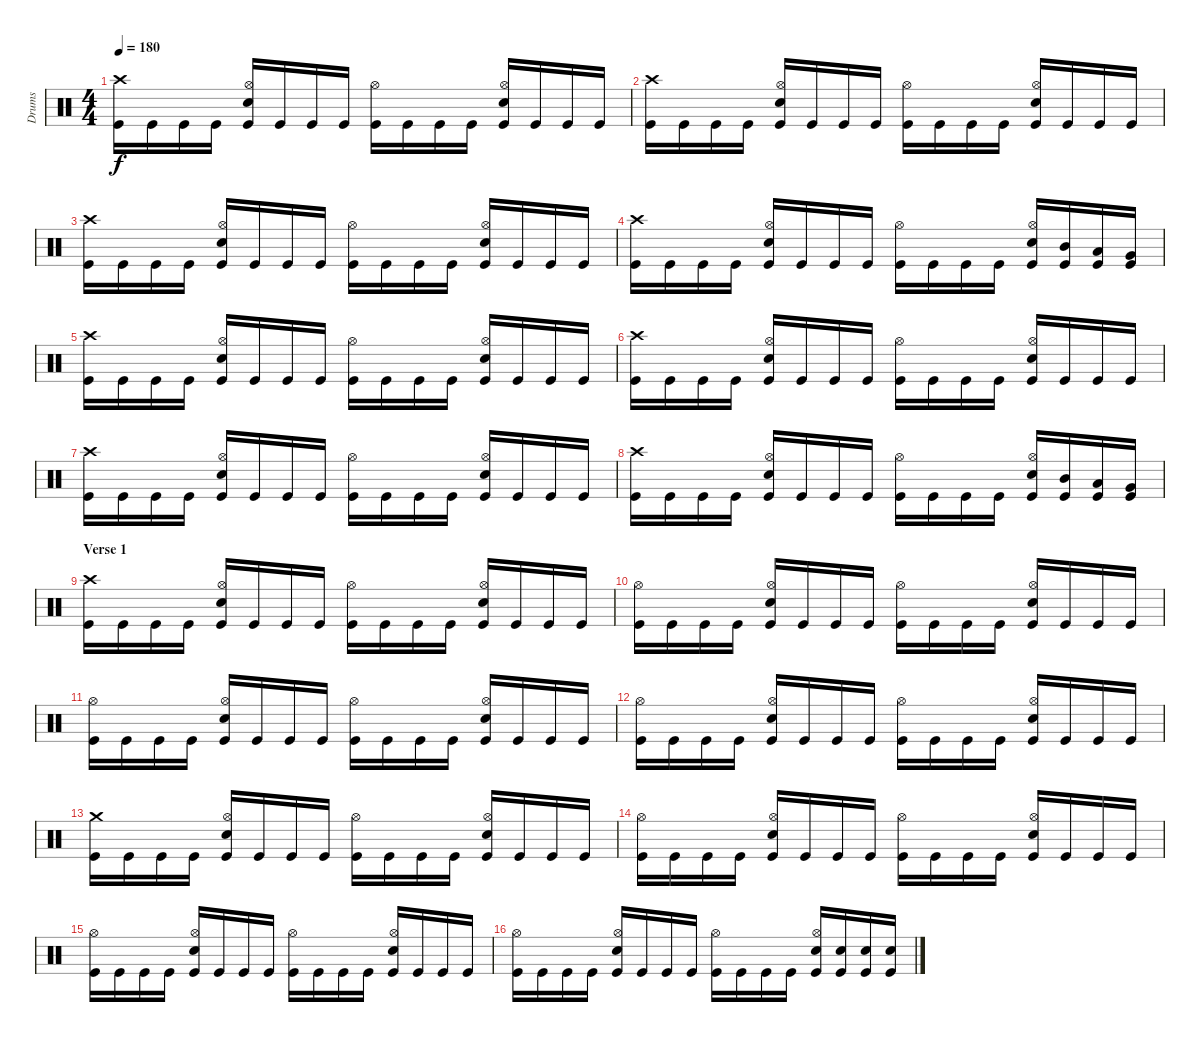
\track ("Drums" "Drums") {instrument percussion}
\staff {score}
\articulation defaults
\ts (4 4)
\tempo 180
\clef neutral
\ks c
("Crash high (hit)" "Kick (hit)").16{dy f} "Kick (hit)".16 "Kick (hit)".16 "Kick (hit)".16 ("Hi-Hat (open)" "Snare (hit) 2" "Kick (hit)").16 "Kick (hit)".16 "Kick (hit)".16 "Kick (hit)".16 ("Hi-Hat (open)" "Kick (hit)").16 "Kick (hit)".16 "Kick (hit)".16 "Kick (hit)".16 ("Hi-Hat (open)" "Snare (hit) 2" "Kick (hit)").16 "Kick (hit)".16 "Kick (hit)".16 "Kick (hit)".16 |
("Crash high (hit)" "Kick (hit)").16 "Kick (hit)".16 "Kick (hit)".16 "Kick (hit)".16 ("Hi-Hat (open)" "Snare (hit) 2" "Kick (hit)").16 "Kick (hit)".16 "Kick (hit)".16 "Kick (hit)".16 ("Hi-Hat (open)" "Kick (hit)").16 "Kick (hit)".16 "Kick (hit)".16 "Kick (hit)".16 ("Hi-Hat (open)" "Snare (hit) 2" "Kick (hit)").16 "Kick (hit)".16 "Kick (hit)".16 "Kick (hit)".16 |
("Crash high (hit)" "Kick (hit)").16 "Kick (hit)".16 "Kick (hit)".16 "Kick (hit)".16 ("Hi-Hat (open)" "Snare (hit) 2" "Kick (hit)").16 "Kick (hit)".16 "Kick (hit)".16 "Kick (hit)".16 ("Hi-Hat (open)" "Kick (hit)").16 "Kick (hit)".16 "Kick (hit)".16 "Kick (hit)".16 ("Hi-Hat (open)" "Snare (hit) 2" "Kick (hit)").16 "Kick (hit)".16 "Kick (hit)".16 "Kick (hit)".16 |
("Crash high (hit)" "Kick (hit)").16 "Kick (hit)".16 "Kick (hit)".16 "Kick (hit)".16 ("Hi-Hat (open)" "Snare (hit) 2" "Kick (hit)").16 "Kick (hit)".16 "Kick (hit)".16 "Kick (hit)".16 ("Hi-Hat (open)" "Kick (hit)").16 "Kick (hit)".16 "Kick (hit)".16 "Kick (hit)".16 ("Hi-Hat (open)" "Snare (hit) 2" "Kick (hit)").16 ("Mid Tom (hit)" "Kick (hit)").16 ("Low Tom (hit)" "Kick (hit)").16 ("Very Low Tom (hit)" "Kick (hit)").16 |
("Crash high (hit)" "Kick (hit)").16 "Kick (hit)".16 "Kick (hit)".16 "Kick (hit)".16 ("Hi-Hat (open)" "Snare (hit) 2" "Kick (hit)").16 "Kick (hit)".16 "Kick (hit)".16 "Kick (hit)".16 ("Hi-Hat (open)" "Kick (hit)").16 "Kick (hit)".16 "Kick (hit)".16 "Kick (hit)".16 ("Hi-Hat (open)" "Snare (hit) 2" "Kick (hit)").16 "Kick (hit)".16 "Kick (hit)".16 "Kick (hit)".16 |
("Crash high (hit)" "Kick (hit)").16 "Kick (hit)".16 "Kick (hit)".16 "Kick (hit)".16 ("Hi-Hat (open)" "Snare (hit) 2" "Kick (hit)").16 "Kick (hit)".16 "Kick (hit)".16 "Kick (hit)".16 ("Hi-Hat (open)" "Kick (hit)").16 "Kick (hit)".16 "Kick (hit)".16 "Kick (hit)".16 ("Hi-Hat (open)" "Snare (hit) 2" "Kick (hit)").16 "Kick (hit)".16 "Kick (hit)".16 "Kick (hit)".16 |
("Crash high (hit)" "Kick (hit)").16 "Kick (hit)".16 "Kick (hit)".16 "Kick (hit)".16 ("Hi-Hat (open)" "Snare (hit) 2" "Kick (hit)").16 "Kick (hit)".16 "Kick (hit)".16 "Kick (hit)".16 ("Hi-Hat (open)" "Kick (hit)").16 "Kick (hit)".16 "Kick (hit)".16 "Kick (hit)".16 ("Hi-Hat (open)" "Snare (hit) 2" "Kick (hit)").16 "Kick (hit)".16 "Kick (hit)".16 "Kick (hit)".16 |
("Crash high (hit)" "Kick (hit)").16 "Kick (hit)".16 "Kick (hit)".16 "Kick (hit)".16 ("Hi-Hat (open)" "Snare (hit) 2" "Kick (hit)").16 "Kick (hit)".16 "Kick (hit)".16 "Kick (hit)".16 ("Hi-Hat (open)" "Kick (hit)").16 "Kick (hit)".16 "Kick (hit)".16 "Kick (hit)".16 ("Hi-Hat (open)" "Snare (hit) 2" "Kick (hit)").16 ("Mid Tom (hit)" "Kick (hit)").16 ("Low Tom (hit)" "Kick (hit)").16 ("Very Low Tom (hit)" "Kick (hit)").16 |
\section ("" "Verse 1")
("Crash high (hit)" "Kick (hit)").16 "Kick (hit)".16 "Kick (hit)".16 "Kick (hit)".16 ("Hi-Hat (open)" "Snare (hit) 2" "Kick (hit)").16 "Kick (hit)".16 "Kick (hit)".16 "Kick (hit)".16 ("Hi-Hat (open)" "Kick (hit)").16 "Kick (hit)".16 "Kick (hit)".16 "Kick (hit)".16 ("Hi-Hat (open)" "Snare (hit) 2" "Kick (hit)").16 "Kick (hit)".16 "Kick (hit)".16 "Kick (hit)".16 |
("Hi-Hat (open)" "Kick (hit)").16 "Kick (hit)".16 "Kick (hit)".16 "Kick (hit)".16 ("Hi-Hat (open)" "Snare (hit) 2" "Kick (hit)").16 "Kick (hit)".16 "Kick (hit)".16 "Kick (hit)".16 ("Hi-Hat (open)" "Kick (hit)").16 "Kick (hit)".16 "Kick (hit)".16 "Kick (hit)".16 ("Hi-Hat (open)" "Snare (hit) 2" "Kick (hit)").16 "Kick (hit)".16 "Kick (hit)".16 "Kick (hit)".16 |
("Hi-Hat (open)" "Kick (hit)").16 "Kick (hit)".16 "Kick (hit)".16 "Kick (hit)".16 ("Hi-Hat (open)" "Snare (hit) 2" "Kick (hit)").16 "Kick (hit)".16 "Kick (hit)".16 "Kick (hit)".16 ("Hi-Hat (open)" "Kick (hit)").16 "Kick (hit)".16 "Kick (hit)".16 "Kick (hit)".16 ("Hi-Hat (open)" "Snare (hit) 2" "Kick (hit)").16 "Kick (hit)".16 "Kick (hit)".16 "Kick (hit)".16 |
("Hi-Hat (open)" "Kick (hit)").16 "Kick (hit)".16 "Kick (hit)".16 "Kick (hit)".16 ("Hi-Hat (open)" "Snare (hit) 2" "Kick (hit)").16 "Kick (hit)".16 "Kick (hit)".16 "Kick (hit)".16 ("Hi-Hat (open)" "Kick (hit)").16 "Kick (hit)".16 "Kick (hit)".16 "Kick (hit)".16 ("Hi-Hat (open)" "Snare (hit) 2" "Kick (hit)").16 "Kick (hit)".16 "Kick (hit)".16 "Kick (hit)".16 |
("Crash medium (hit)" "Kick (hit)").16 "Kick (hit)".16 "Kick (hit)".16 "Kick (hit)".16 ("Hi-Hat (open)" "Snare (hit) 2" "Kick (hit)").16 "Kick (hit)".16 "Kick (hit)".16 "Kick (hit)".16 ("Hi-Hat (open)" "Kick (hit)").16 "Kick (hit)".16 "Kick (hit)".16 "Kick (hit)".16 ("Hi-Hat (open)" "Snare (hit) 2" "Kick (hit)").16 "Kick (hit)".16 "Kick (hit)".16 "Kick (hit)".16 |
("Hi-Hat (open)" "Kick (hit)").16 "Kick (hit)".16 "Kick (hit)".16 "Kick (hit)".16 ("Hi-Hat (open)" "Snare (hit) 2" "Kick (hit)").16 "Kick (hit)".16 "Kick (hit)".16 "Kick (hit)".16 ("Hi-Hat (open)" "Kick (hit)").16 "Kick (hit)".16 "Kick (hit)".16 "Kick (hit)".16 ("Hi-Hat (open)" "Snare (hit) 2" "Kick (hit)").16 "Kick (hit)".16 "Kick (hit)".16 "Kick (hit)".16 |
("Hi-Hat (open)" "Kick (hit)").16 "Kick (hit)".16 "Kick (hit)".16 "Kick (hit)".16 ("Hi-Hat (open)" "Snare (hit) 2" "Kick (hit)").16 "Kick (hit)".16 "Kick (hit)".16 "Kick (hit)".16 ("Hi-Hat (open)" "Kick (hit)").16 "Kick (hit)".16 "Kick (hit)".16 "Kick (hit)".16 ("Hi-Hat (open)" "Snare (hit) 2" "Kick (hit)").16 "Kick (hit)".16 "Kick (hit)".16 "Kick (hit)".16 |
("Hi-Hat (open)" "Kick (hit)").16 "Kick (hit)".16 "Kick (hit)".16 "Kick (hit)".16 ("Hi-Hat (open)" "Snare (hit) 2" "Kick (hit)").16 "Kick (hit)".16 "Kick (hit)".16 "Kick (hit)".16 ("Hi-Hat (open)" "Kick (hit)").16 "Kick (hit)".16 "Kick (hit)".16 "Kick (hit)".16 ("Hi-Hat (open)" "Snare (hit) 2" "Kick (hit)").16 ("Snare (hit) 2" "Kick (hit)").16 ("Snare (hit) 2" "Kick (hit)").16 ("Snare (hit) 2" "Kick (hit)").16
